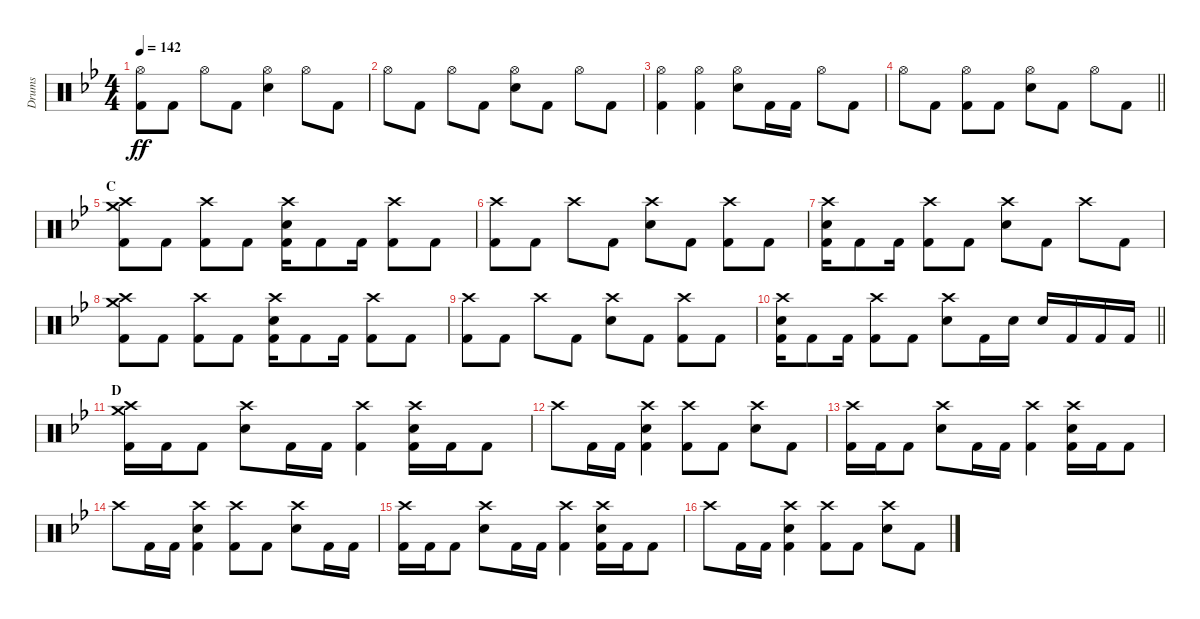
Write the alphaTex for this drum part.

\track ("Drums" "Drums") {instrument percussion}
\staff {score}
\articulation defaults
\ts (4 4)
\tempo 142
\clef neutral
\ks gminor
("Hi-Hat (open)" "Kick (hit) 2").8{dy ff} "Kick (hit) 2".8 "Hi-Hat (open)".8 "Kick (hit) 2".8 ("Hi-Hat (open)" "Electric Snare (hit)").4 "Hi-Hat (open)".8 "Kick (hit) 2".8 |
"Hi-Hat (open)".8 "Kick (hit) 2".8 "Hi-Hat (open)".8 "Kick (hit) 2".8 ("Hi-Hat (open)" "Electric Snare (hit)").8 "Kick (hit) 2".8 "Hi-Hat (open)".8 "Kick (hit) 2".8 |
("Hi-Hat (open)" "Kick (hit) 2").4 ("Hi-Hat (open)" "Kick (hit) 2").4 ("Hi-Hat (open)" "Electric Snare (hit)").8 "Kick (hit) 2".16 "Kick (hit) 2".16 "Hi-Hat (open)".8 "Kick (hit) 2".8 |
\barLineRight lightlight "Hi-Hat (open)".8 "Kick (hit) 2".8
("Hi-Hat (open)" "Kick (hit) 2").8 "Kick (hit) 2".8 ("Hi-Hat (open)" "Electric Snare (hit)").8 "Kick (hit) 2".8 "Hi-Hat (open)".8 "Kick (hit) 2".8 |
\section ("" "C")
("Crash medium (hit)" "Crash high (hit)" "Kick (hit) 2").8 "Kick (hit) 2".8 ("Crash high (hit)" "Kick (hit) 2").8 "Kick (hit) 2".8 ("Crash high (hit)" "Electric Snare (hit)" "Kick (hit) 2").16 "Kick (hit) 2".8 "Kick (hit) 2".16 ("Crash high (hit)" "Kick (hit) 2").8 "Kick (hit) 2".8 |
("Crash high (hit)" "Kick (hit) 2").8 "Kick (hit) 2".8 "Crash high (hit)".8 "Kick (hit) 2".8 ("Crash high (hit)" "Electric Snare (hit)").8 "Kick (hit) 2".8 ("Crash high (hit)" "Kick (hit) 2").8 "Kick (hit) 2".8 |
("Crash high (hit)" "Electric Snare (hit)" "Kick (hit) 2").16 "Kick (hit) 2".8 "Kick (hit) 2".16 ("Crash high (hit)" "Kick (hit) 2").8 "Kick (hit) 2".8 ("Crash high (hit)" "Electric Snare (hit)").8 "Kick (hit) 2".8 "Crash high (hit)".8 "Kick (hit) 2".8 |
("Crash medium (hit)" "Crash high (hit)" "Kick (hit) 2").8 "Kick (hit) 2".8 ("Crash high (hit)" "Kick (hit) 2").8 "Kick (hit) 2".8 ("Crash high (hit)" "Electric Snare (hit)" "Kick (hit) 2").16 "Kick (hit) 2".8 "Kick (hit) 2".16 ("Crash high (hit)" "Kick (hit) 2").8 "Kick (hit) 2".8 |
("Crash high (hit)" "Kick (hit) 2").8 "Kick (hit) 2".8 "Crash high (hit)".8 "Kick (hit) 2".8 ("Crash high (hit)" "Electric Snare (hit)").8 "Kick (hit) 2".8 ("Crash high (hit)" "Kick (hit) 2").8 "Kick (hit) 2".8 |
\barLineRight lightlight
("Crash high (hit)" "Electric Snare (hit)" "Kick (hit) 2").16 "Kick (hit) 2".8 "Kick (hit) 2".16 ("Crash high (hit)" "Kick (hit) 2").8 "Kick (hit) 2".8 ("Crash high (hit)" "Electric Snare (hit)").8 "Kick (hit) 2".16 "Electric Snare (hit)".16 "Electric Snare (hit)".16 "Kick (hit) 2".16 "Kick (hit) 2".16 "Kick (hit) 2".16 |
\section ("" "D")
("Crash medium (hit)" "Crash high (hit)" "Kick (hit) 2").16 "Kick (hit) 2".16 "Kick (hit) 2".8 ("Crash high (hit)" "Electric Snare (hit)").8 "Kick (hit) 2".16 "Kick (hit) 2".16 ("Crash high (hit)" "Kick (hit) 2").4 ("Crash high (hit)" "Electric Snare (hit)" "Kick (hit) 2").16 "Kick (hit) 2".16 "Kick (hit) 2".8 |
"Crash high (hit)".8 "Kick (hit) 2".16 "Kick (hit) 2".16 ("Crash high (hit)" "Electric Snare (hit)" "Kick (hit) 2").4 ("Crash high (hit)" "Kick (hit) 2").8 "Kick (hit) 2".8 ("Crash high (hit)" "Electric Snare (hit)").8 "Kick (hit) 2".8 |
("Crash high (hit)" "Kick (hit) 2").16 "Kick (hit) 2".16 "Kick (hit) 2".8 ("Crash high (hit)" "Electric Snare (hit)").8 "Kick (hit) 2".16 "Kick (hit) 2".16 ("Crash high (hit)" "Kick (hit) 2").4 ("Crash high (hit)" "Electric Snare (hit)" "Kick (hit) 2").16 "Kick (hit) 2".16 "Kick (hit) 2".8 |
"Crash high (hit)".8 "Kick (hit) 2".16 "Kick (hit) 2".16 ("Crash high (hit)" "Electric Snare (hit)" "Kick (hit) 2").4 ("Crash high (hit)" "Kick (hit) 2").8 "Kick (hit) 2".8 ("Crash high (hit)" "Electric Snare (hit)").8 "Kick (hit) 2".16 "Kick (hit) 2".16 |
("Crash high (hit)" "Kick (hit) 2").16 "Kick (hit) 2".16 "Kick (hit) 2".8 ("Crash high (hit)" "Electric Snare (hit)").8 "Kick (hit) 2".16 "Kick (hit) 2".16 ("Crash high (hit)" "Kick (hit) 2").4 ("Crash high (hit)" "Electric Snare (hit)" "Kick (hit) 2").16 "Kick (hit) 2".16 "Kick (hit) 2".8 |
"Crash high (hit)".8 "Kick (hit) 2".16 "Kick (hit) 2".16 ("Crash high (hit)" "Electric Snare (hit)" "Kick (hit) 2").4 ("Crash high (hit)" "Kick (hit) 2").8 "Kick (hit) 2".8 ("Crash high (hit)" "Electric Snare (hit)").8 "Kick (hit) 2".8
